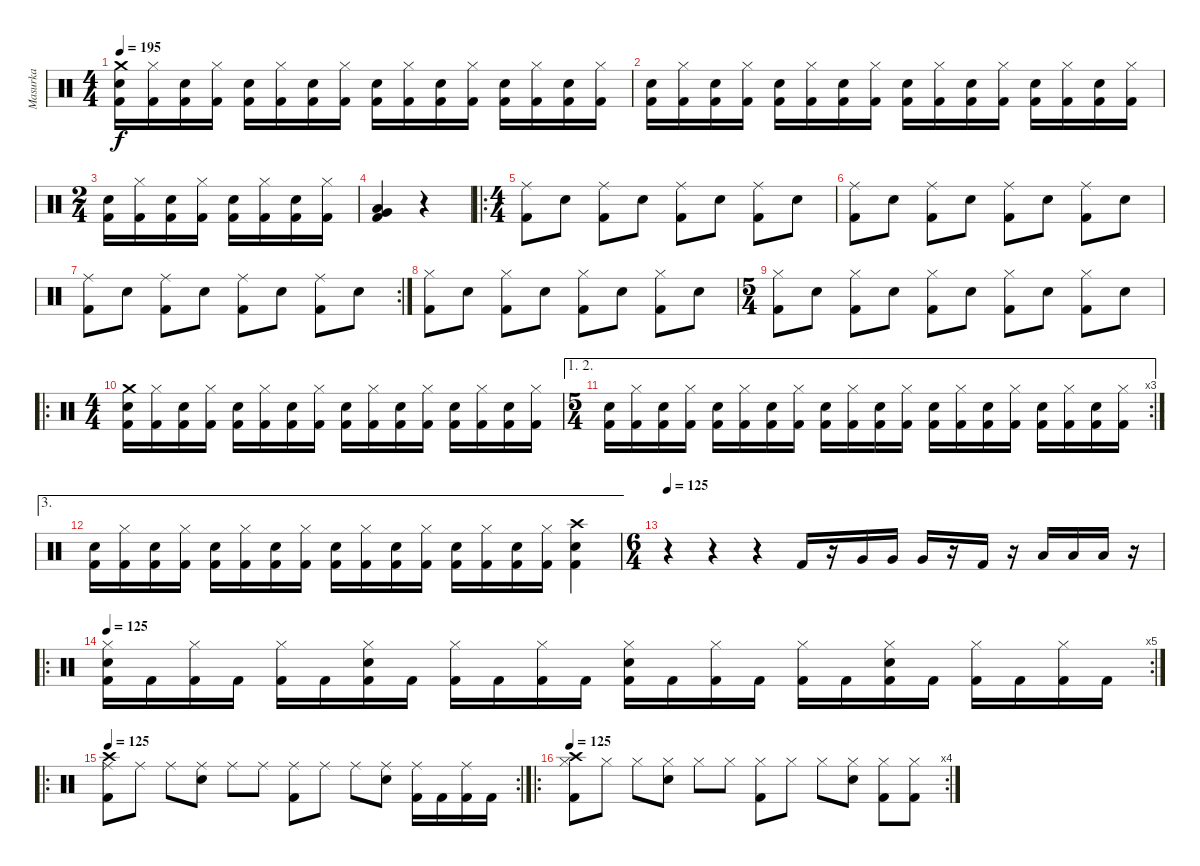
\track ("Masurka" "Masurka") {instrument percussion}
\staff {score}
\articulation defaults
\ts (4 4)
\tempo 195
\clef neutral
\ks c
("Crash medium (hit)" "Kick (hit) 2" "Snare (hit) 2").16{dy f} ("Hi-Hat (closed)" "Kick (hit) 2").16 ("Kick (hit) 2" "Snare (hit) 2").16 ("Hi-Hat (closed)" "Kick (hit) 2").16 ("Kick (hit) 2" "Snare (hit) 2").16 ("Hi-Hat (closed)" "Kick (hit) 2").16 ("Kick (hit) 2" "Snare (hit) 2").16 ("Hi-Hat (closed)" "Kick (hit) 2").16 ("Kick (hit) 2" "Snare (hit) 2").16 ("Hi-Hat (closed)" "Kick (hit) 2").16 ("Kick (hit) 2" "Snare (hit) 2").16 ("Hi-Hat (closed)" "Kick (hit) 2").16 ("Kick (hit) 2" "Snare (hit) 2").16 ("Hi-Hat (closed)" "Kick (hit) 2").16 ("Kick (hit) 2" "Snare (hit) 2").16 ("Hi-Hat (closed)" "Kick (hit) 2").16 |
("Kick (hit) 2" "Snare (hit) 2").16 ("Hi-Hat (closed)" "Kick (hit) 2").16 ("Kick (hit) 2" "Snare (hit) 2").16 ("Hi-Hat (closed)" "Kick (hit) 2").16 ("Kick (hit) 2" "Snare (hit) 2").16 ("Hi-Hat (closed)" "Kick (hit) 2").16 ("Kick (hit) 2" "Snare (hit) 2").16 ("Hi-Hat (closed)" "Kick (hit) 2").16 ("Kick (hit) 2" "Snare (hit) 2").16 ("Hi-Hat (closed)" "Kick (hit) 2").16 ("Kick (hit) 2" "Snare (hit) 2").16 ("Hi-Hat (closed)" "Kick (hit) 2").16 ("Kick (hit) 2" "Snare (hit) 2").16 ("Hi-Hat (closed)" "Kick (hit) 2").16 ("Kick (hit) 2" "Snare (hit) 2").16 ("Hi-Hat (closed)" "Kick (hit) 2").16 |
\ts (2 4)
("Kick (hit) 2" "Snare (hit) 2").16 ("Hi-Hat (closed)" "Kick (hit) 2").16 ("Kick (hit) 2" "Snare (hit) 2").16 ("Hi-Hat (closed)" "Kick (hit) 2").16 ("Kick (hit) 2" "Snare (hit) 2").16 ("Hi-Hat (closed)" "Kick (hit) 2").16 ("Kick (hit) 2" "Snare (hit) 2").16 ("Hi-Hat (closed)" "Kick (hit) 2").16 |
("Kick (hit) 2" "Very Low Tom (hit)" "Low Tom (hit)").4 r.4 |
\ro
\ts (4 4)
("Ride (middle)" "Kick (hit) 2").8 "Snare (hit) 2".8 ("Ride (middle)" "Kick (hit) 2").8 "Snare (hit) 2".8 ("Ride (middle)" "Kick (hit) 2").8 "Snare (hit) 2".8 ("Ride (middle)" "Kick (hit) 2").8 "Snare (hit) 2".8 |
("Ride (middle)" "Kick (hit) 2").8 "Snare (hit) 2".8 ("Ride (middle)" "Kick (hit) 2").8 "Snare (hit) 2".8 ("Ride (middle)" "Kick (hit) 2").8 "Snare (hit) 2".8 ("Ride (middle)" "Kick (hit) 2").8 "Snare (hit) 2".8 |
\rc 2
("Ride (middle)" "Kick (hit) 2").8 "Snare (hit) 2".8 ("Ride (middle)" "Kick (hit) 2").8 "Snare (hit) 2".8 ("Ride (middle)" "Kick (hit) 2").8 "Snare (hit) 2".8 ("Ride (middle)" "Kick (hit) 2").8 "Snare (hit) 2".8 |
("Hi-Hat (closed)" "Kick (hit) 2").8 "Snare (hit) 2".8 ("Hi-Hat (closed)" "Kick (hit) 2").8 "Snare (hit) 2".8 ("Hi-Hat (closed)" "Kick (hit) 2").8 "Snare (hit) 2".8 ("Hi-Hat (closed)" "Kick (hit) 2").8 "Snare (hit) 2".8 |
\ts (5 4)
("Hi-Hat (closed)" "Kick (hit) 2").8 "Snare (hit) 2".8 ("Hi-Hat (closed)" "Kick (hit) 2").8 "Snare (hit) 2".8 ("Hi-Hat (closed)" "Kick (hit) 2").8 "Snare (hit) 2".8 ("Hi-Hat (closed)" "Kick (hit) 2").8 "Snare (hit) 2".8 ("Hi-Hat (closed)" "Kick (hit) 2").8 "Snare (hit) 2".8 |
\ro
\ts (4 4)
("Crash medium (hit)" "Kick (hit) 2" "Snare (hit) 2").16 ("Hi-Hat (closed)" "Kick (hit) 2").16 ("Kick (hit) 2" "Snare (hit) 2").16 ("Hi-Hat (closed)" "Kick (hit) 2").16 ("Kick (hit) 2" "Snare (hit) 2").16 ("Hi-Hat (closed)" "Kick (hit) 2").16 ("Kick (hit) 2" "Snare (hit) 2").16 ("Hi-Hat (closed)" "Kick (hit) 2").16 ("Kick (hit) 2" "Snare (hit) 2").16 ("Hi-Hat (closed)" "Kick (hit) 2").16 ("Kick (hit) 2" "Snare (hit) 2").16 ("Hi-Hat (closed)" "Kick (hit) 2").16 ("Kick (hit) 2" "Snare (hit) 2").16 ("Hi-Hat (closed)" "Kick (hit) 2").16 ("Kick (hit) 2" "Snare (hit) 2").16 ("Hi-Hat (closed)" "Kick (hit) 2").16 |
\ae (1 2)
\rc 3
\ts (5 4)
("Kick (hit) 2" "Snare (hit) 2").16 ("Hi-Hat (closed)" "Kick (hit) 2").16 ("Kick (hit) 2" "Snare (hit) 2").16 ("Hi-Hat (closed)" "Kick (hit) 2").16 ("Kick (hit) 2" "Snare (hit) 2").16 ("Hi-Hat (closed)" "Kick (hit) 2").16 ("Kick (hit) 2" "Snare (hit) 2").16 ("Hi-Hat (closed)" "Kick (hit) 2").16 ("Kick (hit) 2" "Snare (hit) 2").16 ("Hi-Hat (closed)" "Kick (hit) 2").16 ("Kick (hit) 2" "Snare (hit) 2").16 ("Hi-Hat (closed)" "Kick (hit) 2").16 ("Kick (hit) 2" "Snare (hit) 2").16 ("Hi-Hat (closed)" "Kick (hit) 2").16 ("Kick (hit) 2" "Snare (hit) 2").16 ("Hi-Hat (closed)" "Kick (hit) 2").16 ("Kick (hit) 2" "Snare (hit) 2").16 ("Hi-Hat (closed)" "Kick (hit) 2").16 ("Kick (hit) 2" "Snare (hit) 2").16 ("Hi-Hat (closed)" "Kick (hit) 2").16 |
\ae 3
("Kick (hit) 2" "Snare (hit) 2").16 ("Hi-Hat (closed)" "Kick (hit) 2").16 ("Kick (hit) 2" "Snare (hit) 2").16 ("Hi-Hat (closed)" "Kick (hit) 2").16 ("Kick (hit) 2" "Snare (hit) 2").16 ("Hi-Hat (closed)" "Kick (hit) 2").16 ("Kick (hit) 2" "Snare (hit) 2").16 ("Hi-Hat (closed)" "Kick (hit) 2").16 ("Kick (hit) 2" "Snare (hit) 2").16 ("Hi-Hat (closed)" "Kick (hit) 2").16 ("Kick (hit) 2" "Snare (hit) 2").16 ("Hi-Hat (closed)" "Kick (hit) 2").16 ("Kick (hit) 2" "Snare (hit) 2").16 ("Hi-Hat (closed)" "Kick (hit) 2").16 ("Kick (hit) 2" "Snare (hit) 2").16 ("Hi-Hat (closed)" "Kick (hit) 2").16 ("Crash high (hit)" "Kick (hit) 2" "Snare (hit) 2").4 |
\ts (6 4)
\tempo 125
r.4 r.4 r.4 "Kick (hit) 2".16 r.16 "Very Low Tom (hit)".16 "Very Low Tom (hit)".16 "Very Low Tom (hit)".16 r.16 "Kick (hit) 2".16 r.16 "Low Floor Tom (hit)".16 "Low Floor Tom (hit)".16 "Low Floor Tom (hit)".16 r.16 |
\ro
\rc 5
\tempo 125
("Hi-Hat (closed)" "Snare (hit) 2" "Kick (hit) 2").16 "Kick (hit) 2".16 ("Hi-Hat (closed)" "Kick (hit) 2").16 "Kick (hit) 2".16 ("Hi-Hat (closed)" "Kick (hit) 2").16 "Kick (hit) 2".16 ("Hi-Hat (closed)" "Snare (hit) 2" "Kick (hit) 2").16 "Kick (hit) 2".16 ("Hi-Hat (closed)" "Kick (hit) 2").16 "Kick (hit) 2".16 ("Hi-Hat (closed)" "Kick (hit) 2").16 "Kick (hit) 2".16 ("Hi-Hat (closed)" "Snare (hit) 2" "Kick (hit) 2").16 "Kick (hit) 2".16 ("Hi-Hat (closed)" "Kick (hit) 2").16 "Kick (hit) 2".16 ("Hi-Hat (closed)" "Kick (hit) 2").16 "Kick (hit) 2".16 ("Hi-Hat (closed)" "Snare (hit) 2" "Kick (hit) 2").16 "Kick (hit) 2".16 ("Hi-Hat (closed)" "Kick (hit) 2").16 "Kick (hit) 2".16 ("Hi-Hat (closed)" "Kick (hit) 2").16 "Kick (hit) 2".16 |
\ro
\rc 2
\tempo 125
("Crash high (hit)" "Ride (middle)" "Kick (hit) 2").8 "Ride (middle)".8 "Ride (middle)".8 ("Ride (middle)" "Snare (hit) 2").8 "Ride (middle)".8 "Ride (middle)".8 ("Ride (middle)" "Kick (hit) 2").8 "Ride (middle)".8 "Ride (middle)".8 ("Ride (middle)" "Snare (hit) 2").8 ("Ride (middle)" "Kick (hit) 2").16 "Kick (hit) 2".16 ("Ride (middle)" "Kick (hit) 2").16 "Kick (hit) 2".16 |
\ro
\rc 4
\tempo 125
("Crash high (hit)" "Hi-Hat (closed)" "Kick (hit) 2").8 "Hi-Hat (closed)".8 "Hi-Hat (closed)".8 ("Hi-Hat (closed)" "Snare (hit) 2").8 "Hi-Hat (closed)".8 "Hi-Hat (closed)".8 ("Hi-Hat (closed)" "Kick (hit) 2").8 "Hi-Hat (closed)".8 "Hi-Hat (closed)".8 ("Hi-Hat (closed)" "Snare (hit) 2").8 ("Hi-Hat (closed)" "Kick (hit) 2").8 ("Hi-Hat (closed)" "Kick (hit) 2").8
